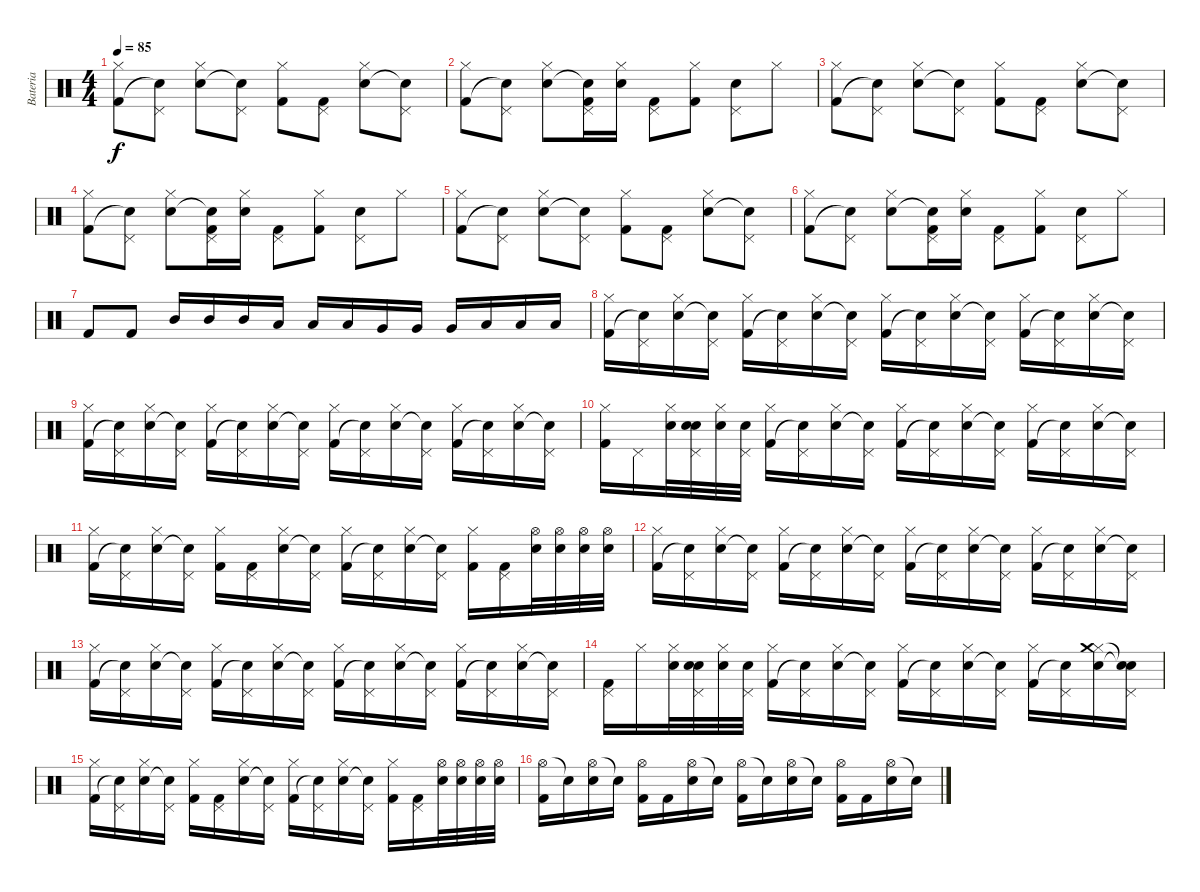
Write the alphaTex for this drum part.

\track ("Bateria" "Bateria") {instrument percussion}
\staff {score}
\articulation defaults
\ts (4 4)
\tempo 85
\clef neutral
\ks c
("Hi-Hat (closed)" "Kick (hit) 2").8{dy f} ("Pedal Hi-Hat (hit)" "Snare (hit)"{t}).8 ("Hi-Hat (closed)" "Electric Snare (hit)").8 ("Pedal Hi-Hat (hit)" "Snare (hit)"{t}).8 ("Hi-Hat (closed)" "Kick (hit) 2").8 ("Pedal Hi-Hat (hit)" "Kick (hit) 2").8 ("Hi-Hat (closed)" "Electric Snare (hit)").8 ("Pedal Hi-Hat (hit)" "Snare (hit)"{t}).8 |
("Hi-Hat (closed)" "Kick (hit) 2").8 ("Pedal Hi-Hat (hit)" "Snare (hit)"{t}).8 ("Hi-Hat (closed)" "Electric Snare (hit)").8 ("Pedal Hi-Hat (hit)" "Snare (hit)"{t} "Kick (hit) 2").16 ("Hi-Hat (closed)" "Electric Snare (hit)").16 ("Pedal Hi-Hat (hit)" "Kick (hit) 2").8 ("Hi-Hat (closed)" "Kick (hit) 2").8 ("Pedal Hi-Hat (hit)" "Electric Snare (hit)").8 "Hi-Hat (closed)".8 |
("Hi-Hat (closed)" "Kick (hit) 2").8 ("Pedal Hi-Hat (hit)" "Snare (hit)"{t}).8 ("Hi-Hat (closed)" "Electric Snare (hit)").8 ("Pedal Hi-Hat (hit)" "Snare (hit)"{t}).8 ("Hi-Hat (closed)" "Kick (hit) 2").8 ("Pedal Hi-Hat (hit)" "Kick (hit) 2").8 ("Hi-Hat (closed)" "Electric Snare (hit)").8 ("Pedal Hi-Hat (hit)" "Snare (hit)"{t}).8 |
("Hi-Hat (closed)" "Kick (hit) 2").8 ("Pedal Hi-Hat (hit)" "Snare (hit)"{t}).8 ("Hi-Hat (closed)" "Electric Snare (hit)").8 ("Pedal Hi-Hat (hit)" "Snare (hit)"{t} "Kick (hit) 2").16 ("Hi-Hat (closed)" "Electric Snare (hit)").16 ("Pedal Hi-Hat (hit)" "Kick (hit) 2").8 ("Hi-Hat (closed)" "Kick (hit) 2").8 ("Pedal Hi-Hat (hit)" "Electric Snare (hit)").8 "Hi-Hat (closed)".8 |
("Hi-Hat (closed)" "Kick (hit) 2").8 ("Pedal Hi-Hat (hit)" "Snare (hit)"{t}).8 ("Hi-Hat (closed)" "Electric Snare (hit)").8 ("Pedal Hi-Hat (hit)" "Snare (hit)"{t}).8 ("Hi-Hat (closed)" "Kick (hit) 2").8 ("Pedal Hi-Hat (hit)" "Kick (hit) 2").8 ("Hi-Hat (closed)" "Electric Snare (hit)").8 ("Pedal Hi-Hat (hit)" "Snare (hit)"{t}).8 |
("Hi-Hat (closed)" "Kick (hit) 2").8 ("Pedal Hi-Hat (hit)" "Snare (hit)"{t}).8 ("Hi-Hat (closed)" "Electric Snare (hit)").8 ("Pedal Hi-Hat (hit)" "Snare (hit)"{t} "Kick (hit) 2").16 ("Hi-Hat (closed)" "Electric Snare (hit)").16 ("Pedal Hi-Hat (hit)" "Kick (hit) 2").8 ("Hi-Hat (closed)" "Kick (hit) 2").8 ("Pedal Hi-Hat (hit)" "Electric Snare (hit)").8 "Hi-Hat (closed)".8 |
"Kick (hit) 2".8 "Kick (hit) 2".8 "Mid Tom (hit)".16 "Mid Tom (hit)".16 "Mid Tom (hit)".16 "Low Tom (hit)".16 "Low Tom (hit)".16 "Low Tom (hit)".16 "Very Low Tom (hit)".16 "Very Low Tom (hit)".16 "Very Low Tom (hit)".16 "Low Floor Tom (hit)".16 "Low Floor Tom (hit)".16 "Low Floor Tom (hit)".16 |
("Hi-Hat (closed)" "Kick (hit) 2").16 ("Pedal Hi-Hat (hit)" "Snare (hit)"{t}).16 ("Hi-Hat (closed)" "Electric Snare (hit)").16 ("Pedal Hi-Hat (hit)" "Snare (hit)"{t}).16 ("Hi-Hat (closed)" "Kick (hit) 2").16 ("Pedal Hi-Hat (hit)" "Snare (hit)"{t}).16 ("Hi-Hat (closed)" "Electric Snare (hit)").16 ("Pedal Hi-Hat (hit)" "Snare (hit)"{t}).16 ("Hi-Hat (closed)" "Kick (hit) 2").16 ("Pedal Hi-Hat (hit)" "Snare (hit)"{t}).16 ("Hi-Hat (closed)" "Electric Snare (hit)").16 ("Pedal Hi-Hat (hit)" "Snare (hit)"{t}).16 ("Hi-Hat (closed)" "Kick (hit) 2").16 ("Pedal Hi-Hat (hit)" "Snare (hit)"{t}).16 ("Hi-Hat (closed)" "Electric Snare (hit)").16 ("Pedal Hi-Hat (hit)" "Snare (hit)"{t}).16 |
("Hi-Hat (closed)" "Kick (hit) 2").16 ("Pedal Hi-Hat (hit)" "Snare (hit)"{t}).16 ("Hi-Hat (closed)" "Electric Snare (hit)").16 ("Pedal Hi-Hat (hit)" "Snare (hit)"{t}).16 ("Hi-Hat (closed)" "Kick (hit) 2").16 ("Pedal Hi-Hat (hit)" "Snare (hit)"{t}).16 ("Hi-Hat (closed)" "Electric Snare (hit)").16 ("Pedal Hi-Hat (hit)" "Snare (hit)"{t}).16 ("Hi-Hat (closed)" "Kick (hit) 2").16 ("Pedal Hi-Hat (hit)" "Snare (hit)"{t}).16 ("Hi-Hat (closed)" "Electric Snare (hit)").16 ("Pedal Hi-Hat (hit)" "Snare (hit)"{t}).16 ("Hi-Hat (closed)" "Kick (hit) 2").16 ("Pedal Hi-Hat (hit)" "Snare (hit)"{t}).16 ("Hi-Hat (closed)" "Electric Snare (hit)").16 ("Pedal Hi-Hat (hit)" "Snare (hit)"{t}).16 |
("Hi-Hat (closed)" "Kick (hit) 2").16 "Pedal Hi-Hat (hit)".16 ("Hi-Hat (closed)" "Electric Snare (hit)").32 ("Pedal Hi-Hat (hit)" "Electric Snare (hit)" "Snare (hit)").32 ("Hi-Hat (closed)" "Electric Snare (hit)").32 ("Pedal Hi-Hat (hit)" "Electric Snare (hit)").32 ("Hi-Hat (closed)" "Kick (hit) 2").16 ("Pedal Hi-Hat (hit)" "Snare (hit)"{t}).16 ("Hi-Hat (closed)" "Electric Snare (hit)").16 ("Pedal Hi-Hat (hit)" "Snare (hit)"{t}).16 ("Hi-Hat (closed)" "Kick (hit) 2").16 ("Pedal Hi-Hat (hit)" "Snare (hit)"{t}).16 ("Hi-Hat (closed)" "Electric Snare (hit)").16 ("Pedal Hi-Hat (hit)" "Snare (hit)"{t}).16 ("Hi-Hat (closed)" "Kick (hit) 2").16 ("Pedal Hi-Hat (hit)" "Snare (hit)"{t}).16 ("Hi-Hat (closed)" "Electric Snare (hit)").16 ("Pedal Hi-Hat (hit)" "Snare (hit)"{t}).16 |
("Hi-Hat (closed)" "Kick (hit) 2").16 ("Pedal Hi-Hat (hit)" "Snare (hit)"{t}).16 ("Hi-Hat (closed)" "Electric Snare (hit)").16 ("Pedal Hi-Hat (hit)" "Snare (hit)"{t}).16 ("Hi-Hat (closed)" "Kick (hit) 2").16 ("Pedal Hi-Hat (hit)" "Kick (hit) 2").16 ("Hi-Hat (closed)" "Electric Snare (hit)").16 ("Pedal Hi-Hat (hit)" "Snare (hit)"{t}).16 ("Hi-Hat (closed)" "Kick (hit) 2").16 ("Pedal Hi-Hat (hit)" "Snare (hit)"{t}).16 ("Hi-Hat (closed)" "Electric Snare (hit)").16 ("Pedal Hi-Hat (hit)" "Snare (hit)"{t}).16 ("Hi-Hat (closed)" "Kick (hit) 2").16 ("Pedal Hi-Hat (hit)" "Kick (hit) 2").16 ("Hi-Hat (open)" "Electric Snare (hit)").32 ("Hi-Hat (open)" "Electric Snare (hit)").32 ("Hi-Hat (open)" "Electric Snare (hit)").32 ("Hi-Hat (open)" "Electric Snare (hit)").32 |
("Hi-Hat (closed)" "Kick (hit) 2").16 ("Pedal Hi-Hat (hit)" "Snare (hit)"{t}).16 ("Hi-Hat (closed)" "Electric Snare (hit)").16 ("Pedal Hi-Hat (hit)" "Snare (hit)"{t}).16 ("Hi-Hat (closed)" "Kick (hit) 2").16 ("Pedal Hi-Hat (hit)" "Snare (hit)"{t}).16 ("Hi-Hat (closed)" "Electric Snare (hit)").16 ("Pedal Hi-Hat (hit)" "Snare (hit)"{t}).16 ("Hi-Hat (closed)" "Kick (hit) 2").16 ("Pedal Hi-Hat (hit)" "Snare (hit)"{t}).16 ("Hi-Hat (closed)" "Electric Snare (hit)").16 ("Pedal Hi-Hat (hit)" "Snare (hit)"{t}).16 ("Hi-Hat (closed)" "Kick (hit) 2").16 ("Pedal Hi-Hat (hit)" "Snare (hit)"{t}).16 ("Hi-Hat (closed)" "Electric Snare (hit)").16 ("Pedal Hi-Hat (hit)" "Snare (hit)"{t}).16 |
("Hi-Hat (closed)" "Kick (hit) 2").16 ("Pedal Hi-Hat (hit)" "Snare (hit)"{t}).16 ("Hi-Hat (closed)" "Electric Snare (hit)").16 ("Pedal Hi-Hat (hit)" "Snare (hit)"{t}).16 ("Hi-Hat (closed)" "Kick (hit) 2").16 ("Pedal Hi-Hat (hit)" "Snare (hit)"{t}).16 ("Hi-Hat (closed)" "Electric Snare (hit)").16 ("Pedal Hi-Hat (hit)" "Snare (hit)"{t}).16 ("Hi-Hat (closed)" "Kick (hit) 2").16 ("Pedal Hi-Hat (hit)" "Snare (hit)"{t}).16 ("Hi-Hat (closed)" "Electric Snare (hit)").16 ("Pedal Hi-Hat (hit)" "Snare (hit)"{t}).16 ("Hi-Hat (closed)" "Kick (hit) 2").16 ("Pedal Hi-Hat (hit)" "Snare (hit)"{t}).16 ("Hi-Hat (closed)" "Electric Snare (hit)").16 ("Pedal Hi-Hat (hit)" "Snare (hit)"{t}).16 |
("Pedal Hi-Hat (hit)" "Kick (hit) 2").16 "Hi-Hat (closed)".16 ("Hi-Hat (closed)" "Electric Snare (hit)").32 ("Pedal Hi-Hat (hit)" "Electric Snare (hit)" "Snare (hit)").32 ("Hi-Hat (closed)" "Electric Snare (hit)").32 ("Pedal Hi-Hat (hit)" "Electric Snare (hit)").32 ("Hi-Hat (closed)" "Kick (hit) 2").16 ("Pedal Hi-Hat (hit)" "Snare (hit)"{t}).16 ("Hi-Hat (closed)" "Electric Snare (hit)").16 ("Pedal Hi-Hat (hit)" "Snare (hit)"{t}).16 ("Hi-Hat (closed)" "Kick (hit) 2").16 ("Pedal Hi-Hat (hit)" "Snare (hit)"{t}).16 ("Hi-Hat (closed)" "Electric Snare (hit)").16 ("Pedal Hi-Hat (hit)" "Snare (hit)"{t}).16 ("Hi-Hat (closed)" "Kick (hit) 2").16 ("Pedal Hi-Hat (hit)" "Snare (hit)"{t}).16 ("Hi-Hat (closed)" "Crash medium (hit)" "Electric Snare (hit)").16 ("Pedal Hi-Hat (hit)" "Snare (hit)"{t} "Snare (hit)"{t}).16 |
("Hi-Hat (closed)" "Kick (hit) 2").16 ("Pedal Hi-Hat (hit)" "Snare (hit)"{t}).16 ("Hi-Hat (closed)" "Electric Snare (hit)").16 ("Pedal Hi-Hat (hit)" "Snare (hit)"{t}).16 ("Hi-Hat (closed)" "Kick (hit) 2").16 ("Pedal Hi-Hat (hit)" "Kick (hit) 2").16 ("Hi-Hat (closed)" "Electric Snare (hit)").16 ("Pedal Hi-Hat (hit)" "Snare (hit)"{t}).16 ("Hi-Hat (closed)" "Kick (hit) 2").16 ("Pedal Hi-Hat (hit)" "Snare (hit)"{t}).16 ("Hi-Hat (closed)" "Electric Snare (hit)").16 ("Pedal Hi-Hat (hit)" "Snare (hit)"{t}).16 ("Hi-Hat (closed)" "Kick (hit) 2").16 ("Pedal Hi-Hat (hit)" "Kick (hit) 2").16 ("Hi-Hat (open)" "Electric Snare (hit)").32 ("Hi-Hat (open)" "Electric Snare (hit)").32 ("Hi-Hat (open)" "Electric Snare (hit)").32 ("Hi-Hat (open)" "Electric Snare (hit)").32 |
("Hi-Hat (open)" "Kick (hit) 2").16 "Snare (hit)"{t}.16 ("Hi-Hat (open)" "Electric Snare (hit)").16 "Snare (hit)"{t}.16 ("Hi-Hat (open)" "Kick (hit) 2").16 "Kick (hit) 2".16 ("Hi-Hat (open)" "Electric Snare (hit)").16 "Snare (hit)"{t}.16 ("Hi-Hat (open)" "Kick (hit) 2").16 "Snare (hit)"{t}.16 ("Hi-Hat (open)" "Electric Snare (hit)").16 "Snare (hit)"{t}.16 ("Hi-Hat (open)" "Kick (hit) 2").16 "Kick (hit) 2".16 ("Hi-Hat (open)" "Electric Snare (hit)").16 "Snare (hit)"{t}.16
